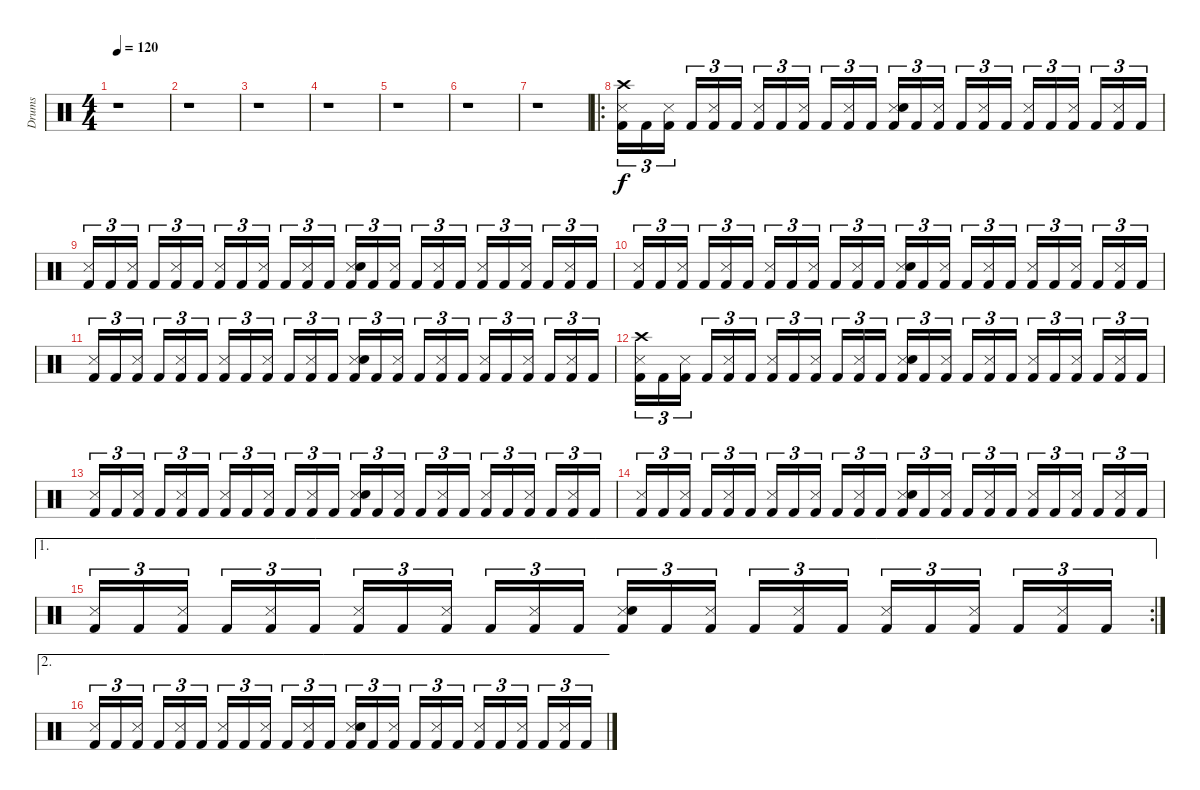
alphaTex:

\track ("Drums" "Drums") {instrument percussion}
\staff {score}
\articulation defaults
\ts (4 4)
\tempo 120
\clef neutral
\ks c
r.1{dy f} |
r.1 |
r.1 |
r.1 |
r.1 |
r.1 |
r.1 |
\ro
("Crash high (hit)" "Snare (side stick) 3" "Kick (hit) 2").16{tu (3 2)} "Kick (hit) 2".16{tu (3 2)} ("Snare (side stick) 3" "Kick (hit) 2").16{tu (3 2)} "Kick (hit) 2".16{tu (3 2)} ("Snare (side stick) 3" "Kick (hit) 2").16{tu (3 2)} "Kick (hit) 2".16{tu (3 2)} ("Snare (side stick) 3" "Kick (hit) 2").16{tu (3 2)} "Kick (hit) 2".16{tu (3 2)} ("Snare (side stick) 3" "Kick (hit) 2").16{tu (3 2)} "Kick (hit) 2".16{tu (3 2)} ("Snare (side stick) 3" "Kick (hit) 2").16{tu (3 2)} "Kick (hit) 2".16{tu (3 2)} ("Snare (side stick) 3" "Electric Snare (hit)" "Kick (hit) 2").16{tu (3 2)} "Kick (hit) 2".16{tu (3 2)} ("Snare (side stick) 3" "Kick (hit) 2").16{tu (3 2)} "Kick (hit) 2".16{tu (3 2)} ("Snare (side stick) 3" "Kick (hit) 2").16{tu (3 2)} "Kick (hit) 2".16{tu (3 2)} ("Snare (side stick) 3" "Kick (hit) 2").16{tu (3 2)} "Kick (hit) 2".16{tu (3 2)} ("Snare (side stick) 3" "Kick (hit) 2").16{tu (3 2)} "Kick (hit) 2".16{tu (3 2)} ("Snare (side stick) 3" "Kick (hit) 2").16{tu (3 2)} "Kick (hit) 2".16{tu (3 2)} |
("Snare (side stick) 3" "Kick (hit) 2").16{tu (3 2)} "Kick (hit) 2".16{tu (3 2)} ("Snare (side stick) 3" "Kick (hit) 2").16{tu (3 2)} "Kick (hit) 2".16{tu (3 2)} ("Snare (side stick) 3" "Kick (hit) 2").16{tu (3 2)} "Kick (hit) 2".16{tu (3 2)} ("Snare (side stick) 3" "Kick (hit) 2").16{tu (3 2)} "Kick (hit) 2".16{tu (3 2)} ("Snare (side stick) 3" "Kick (hit) 2").16{tu (3 2)} "Kick (hit) 2".16{tu (3 2)} ("Snare (side stick) 3" "Kick (hit) 2").16{tu (3 2)} "Kick (hit) 2".16{tu (3 2)} ("Snare (side stick) 3" "Electric Snare (hit)" "Kick (hit) 2").16{tu (3 2)} "Kick (hit) 2".16{tu (3 2)} ("Snare (side stick) 3" "Kick (hit) 2").16{tu (3 2)} "Kick (hit) 2".16{tu (3 2)} ("Snare (side stick) 3" "Kick (hit) 2").16{tu (3 2)} "Kick (hit) 2".16{tu (3 2)} ("Snare (side stick) 3" "Kick (hit) 2").16{tu (3 2)} "Kick (hit) 2".16{tu (3 2)} ("Snare (side stick) 3" "Kick (hit) 2").16{tu (3 2)} "Kick (hit) 2".16{tu (3 2)} ("Snare (side stick) 3" "Kick (hit) 2").16{tu (3 2)} "Kick (hit) 2".16{tu (3 2)} |
("Snare (side stick) 3" "Kick (hit) 2").16{tu (3 2)} "Kick (hit) 2".16{tu (3 2)} ("Snare (side stick) 3" "Kick (hit) 2").16{tu (3 2)} "Kick (hit) 2".16{tu (3 2)} ("Snare (side stick) 3" "Kick (hit) 2").16{tu (3 2)} "Kick (hit) 2".16{tu (3 2)} ("Snare (side stick) 3" "Kick (hit) 2").16{tu (3 2)} "Kick (hit) 2".16{tu (3 2)} ("Snare (side stick) 3" "Kick (hit) 2").16{tu (3 2)} "Kick (hit) 2".16{tu (3 2)} ("Snare (side stick) 3" "Kick (hit) 2").16{tu (3 2)} "Kick (hit) 2".16{tu (3 2)} ("Snare (side stick) 3" "Electric Snare (hit)" "Kick (hit) 2").16{tu (3 2)} "Kick (hit) 2".16{tu (3 2)} ("Snare (side stick) 3" "Kick (hit) 2").16{tu (3 2)} "Kick (hit) 2".16{tu (3 2)} ("Snare (side stick) 3" "Kick (hit) 2").16{tu (3 2)} "Kick (hit) 2".16{tu (3 2)} ("Snare (side stick) 3" "Kick (hit) 2").16{tu (3 2)} "Kick (hit) 2".16{tu (3 2)} ("Snare (side stick) 3" "Kick (hit) 2").16{tu (3 2)} "Kick (hit) 2".16{tu (3 2)} ("Snare (side stick) 3" "Kick (hit) 2").16{tu (3 2)} "Kick (hit) 2".16{tu (3 2)} |
("Snare (side stick) 3" "Kick (hit) 2").16{tu (3 2)} "Kick (hit) 2".16{tu (3 2)} ("Snare (side stick) 3" "Kick (hit) 2").16{tu (3 2)} "Kick (hit) 2".16{tu (3 2)} ("Snare (side stick) 3" "Kick (hit) 2").16{tu (3 2)} "Kick (hit) 2".16{tu (3 2)} ("Snare (side stick) 3" "Kick (hit) 2").16{tu (3 2)} "Kick (hit) 2".16{tu (3 2)} ("Snare (side stick) 3" "Kick (hit) 2").16{tu (3 2)} "Kick (hit) 2".16{tu (3 2)} ("Snare (side stick) 3" "Kick (hit) 2").16{tu (3 2)} "Kick (hit) 2".16{tu (3 2)} ("Snare (side stick) 3" "Electric Snare (hit)" "Kick (hit) 2").16{tu (3 2)} "Kick (hit) 2".16{tu (3 2)} ("Snare (side stick) 3" "Kick (hit) 2").16{tu (3 2)} "Kick (hit) 2".16{tu (3 2)} ("Snare (side stick) 3" "Kick (hit) 2").16{tu (3 2)} "Kick (hit) 2".16{tu (3 2)} ("Snare (side stick) 3" "Kick (hit) 2").16{tu (3 2)} "Kick (hit) 2".16{tu (3 2)} ("Snare (side stick) 3" "Kick (hit) 2").16{tu (3 2)} "Kick (hit) 2".16{tu (3 2)} ("Snare (side stick) 3" "Kick (hit) 2").16{tu (3 2)} "Kick (hit) 2".16{tu (3 2)} |
("Crash high (hit)" "Snare (side stick) 3" "Kick (hit) 2").16{tu (3 2)} "Kick (hit) 2".16{tu (3 2)} ("Snare (side stick) 3" "Kick (hit) 2").16{tu (3 2)} "Kick (hit) 2".16{tu (3 2)} ("Snare (side stick) 3" "Kick (hit) 2").16{tu (3 2)} "Kick (hit) 2".16{tu (3 2)} ("Snare (side stick) 3" "Kick (hit) 2").16{tu (3 2)} "Kick (hit) 2".16{tu (3 2)} ("Snare (side stick) 3" "Kick (hit) 2").16{tu (3 2)} "Kick (hit) 2".16{tu (3 2)} ("Snare (side stick) 3" "Kick (hit) 2").16{tu (3 2)} "Kick (hit) 2".16{tu (3 2)} ("Snare (side stick) 3" "Electric Snare (hit)" "Kick (hit) 2").16{tu (3 2)} "Kick (hit) 2".16{tu (3 2)} ("Snare (side stick) 3" "Kick (hit) 2").16{tu (3 2)} "Kick (hit) 2".16{tu (3 2)} ("Snare (side stick) 3" "Kick (hit) 2").16{tu (3 2)} "Kick (hit) 2".16{tu (3 2)} ("Snare (side stick) 3" "Kick (hit) 2").16{tu (3 2)} "Kick (hit) 2".16{tu (3 2)} ("Snare (side stick) 3" "Kick (hit) 2").16{tu (3 2)} "Kick (hit) 2".16{tu (3 2)} ("Snare (side stick) 3" "Kick (hit) 2").16{tu (3 2)} "Kick (hit) 2".16{tu (3 2)} |
("Snare (side stick) 3" "Kick (hit) 2").16{tu (3 2)} "Kick (hit) 2".16{tu (3 2)} ("Snare (side stick) 3" "Kick (hit) 2").16{tu (3 2)} "Kick (hit) 2".16{tu (3 2)} ("Snare (side stick) 3" "Kick (hit) 2").16{tu (3 2)} "Kick (hit) 2".16{tu (3 2)} ("Snare (side stick) 3" "Kick (hit) 2").16{tu (3 2)} "Kick (hit) 2".16{tu (3 2)} ("Snare (side stick) 3" "Kick (hit) 2").16{tu (3 2)} "Kick (hit) 2".16{tu (3 2)} ("Snare (side stick) 3" "Kick (hit) 2").16{tu (3 2)} "Kick (hit) 2".16{tu (3 2)} ("Snare (side stick) 3" "Electric Snare (hit)" "Kick (hit) 2").16{tu (3 2)} "Kick (hit) 2".16{tu (3 2)} ("Snare (side stick) 3" "Kick (hit) 2").16{tu (3 2)} "Kick (hit) 2".16{tu (3 2)} ("Snare (side stick) 3" "Kick (hit) 2").16{tu (3 2)} "Kick (hit) 2".16{tu (3 2)} ("Snare (side stick) 3" "Kick (hit) 2").16{tu (3 2)} "Kick (hit) 2".16{tu (3 2)} ("Snare (side stick) 3" "Kick (hit) 2").16{tu (3 2)} "Kick (hit) 2".16{tu (3 2)} ("Snare (side stick) 3" "Kick (hit) 2").16{tu (3 2)} "Kick (hit) 2".16{tu (3 2)} |
("Snare (side stick) 3" "Kick (hit) 2").16{tu (3 2)} "Kick (hit) 2".16{tu (3 2)} ("Snare (side stick) 3" "Kick (hit) 2").16{tu (3 2)} "Kick (hit) 2".16{tu (3 2)} ("Snare (side stick) 3" "Kick (hit) 2").16{tu (3 2)} "Kick (hit) 2".16{tu (3 2)} ("Snare (side stick) 3" "Kick (hit) 2").16{tu (3 2)} "Kick (hit) 2".16{tu (3 2)} ("Snare (side stick) 3" "Kick (hit) 2").16{tu (3 2)} "Kick (hit) 2".16{tu (3 2)} ("Snare (side stick) 3" "Kick (hit) 2").16{tu (3 2)} "Kick (hit) 2".16{tu (3 2)} ("Snare (side stick) 3" "Electric Snare (hit)" "Kick (hit) 2").16{tu (3 2)} "Kick (hit) 2".16{tu (3 2)} ("Snare (side stick) 3" "Kick (hit) 2").16{tu (3 2)} "Kick (hit) 2".16{tu (3 2)} ("Snare (side stick) 3" "Kick (hit) 2").16{tu (3 2)} "Kick (hit) 2".16{tu (3 2)} ("Snare (side stick) 3" "Kick (hit) 2").16{tu (3 2)} "Kick (hit) 2".16{tu (3 2)} ("Snare (side stick) 3" "Kick (hit) 2").16{tu (3 2)} "Kick (hit) 2".16{tu (3 2)} ("Snare (side stick) 3" "Kick (hit) 2").16{tu (3 2)} "Kick (hit) 2".16{tu (3 2)} |
\ae 1
\rc 2
("Snare (side stick) 3" "Kick (hit) 2").16{tu (3 2)} "Kick (hit) 2".16{tu (3 2)} ("Snare (side stick) 3" "Kick (hit) 2").16{tu (3 2)} "Kick (hit) 2".16{tu (3 2)} ("Snare (side stick) 3" "Kick (hit) 2").16{tu (3 2)} "Kick (hit) 2".16{tu (3 2)} ("Snare (side stick) 3" "Kick (hit) 2").16{tu (3 2)} "Kick (hit) 2".16{tu (3 2)} ("Snare (side stick) 3" "Kick (hit) 2").16{tu (3 2)} "Kick (hit) 2".16{tu (3 2)} ("Snare (side stick) 3" "Kick (hit) 2").16{tu (3 2)} "Kick (hit) 2".16{tu (3 2)} ("Snare (side stick) 3" "Electric Snare (hit)" "Kick (hit) 2").16{tu (3 2)} "Kick (hit) 2".16{tu (3 2)} ("Snare (side stick) 3" "Kick (hit) 2").16{tu (3 2)} "Kick (hit) 2".16{tu (3 2)} ("Snare (side stick) 3" "Kick (hit) 2").16{tu (3 2)} "Kick (hit) 2".16{tu (3 2)} ("Snare (side stick) 3" "Kick (hit) 2").16{tu (3 2)} "Kick (hit) 2".16{tu (3 2)} ("Snare (side stick) 3" "Kick (hit) 2").16{tu (3 2)} "Kick (hit) 2".16{tu (3 2)} ("Snare (side stick) 3" "Kick (hit) 2").16{tu (3 2)} "Kick (hit) 2".16{tu (3 2)} |
\ae 2
("Snare (side stick) 3" "Kick (hit) 2").16{tu (3 2)} "Kick (hit) 2".16{tu (3 2)} ("Snare (side stick) 3" "Kick (hit) 2").16{tu (3 2)} "Kick (hit) 2".16{tu (3 2)} ("Snare (side stick) 3" "Kick (hit) 2").16{tu (3 2)} "Kick (hit) 2".16{tu (3 2)} ("Snare (side stick) 3" "Kick (hit) 2").16{tu (3 2)} "Kick (hit) 2".16{tu (3 2)} ("Snare (side stick) 3" "Kick (hit) 2").16{tu (3 2)} "Kick (hit) 2".16{tu (3 2)} ("Snare (side stick) 3" "Kick (hit) 2").16{tu (3 2)} "Kick (hit) 2".16{tu (3 2)} ("Snare (side stick) 3" "Electric Snare (hit)" "Kick (hit) 2").16{tu (3 2)} "Kick (hit) 2".16{tu (3 2)} ("Snare (side stick) 3" "Kick (hit) 2").16{tu (3 2)} "Kick (hit) 2".16{tu (3 2)} ("Snare (side stick) 3" "Kick (hit) 2").16{tu (3 2)} "Kick (hit) 2".16{tu (3 2)} ("Snare (side stick) 3" "Kick (hit) 2").16{tu (3 2)} "Kick (hit) 2".16{tu (3 2)} ("Snare (side stick) 3" "Kick (hit) 2").16{tu (3 2)} "Kick (hit) 2".16{tu (3 2)} ("Snare (side stick) 3" "Kick (hit) 2").16{tu (3 2)} "Kick (hit) 2".16{tu (3 2)}
